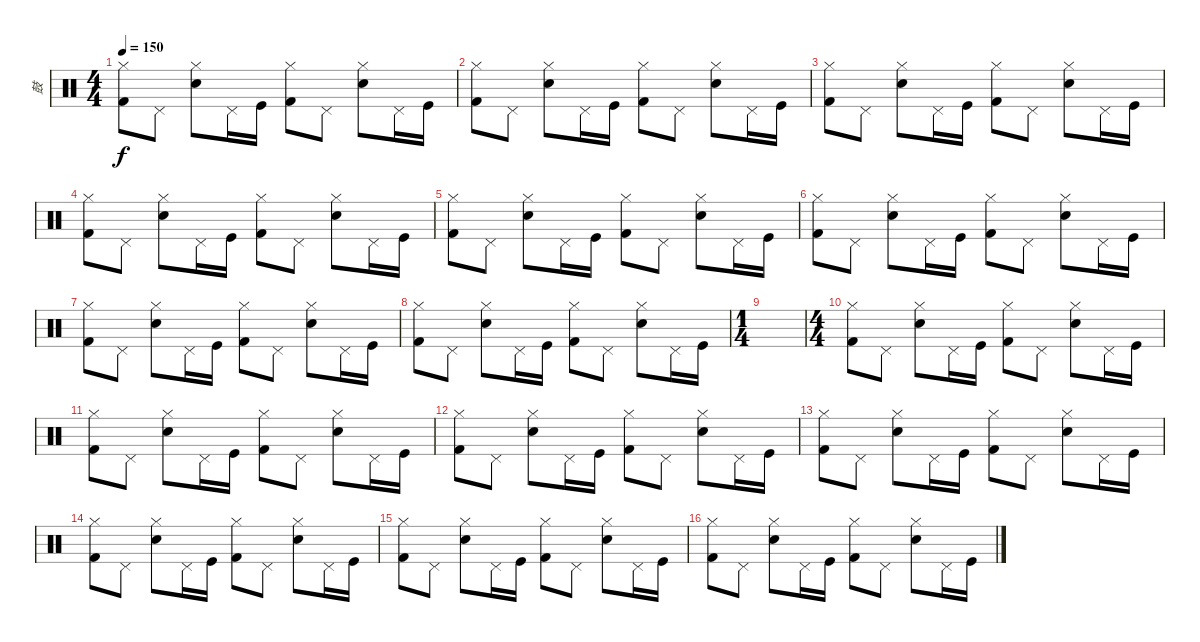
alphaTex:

\track ("鼓" "鼓") {instrument percussion}
\staff {score}
\articulation defaults
\ts (4 4)
\tempo 150
\clef neutral
\ks c
("Hi-Hat (closed)" "Kick (hit) 2").8{dy f} "Pedal Hi-Hat (hit)".8 ("Hi-Hat (closed)" "Electric Snare (hit)").8 "Pedal Hi-Hat (hit)".16 "Kick (hit)".16 ("Hi-Hat (closed)" "Kick (hit) 2").8 "Pedal Hi-Hat (hit)".8 ("Hi-Hat (closed)" "Electric Snare (hit)").8 "Pedal Hi-Hat (hit)".16 "Kick (hit)".16 |
("Hi-Hat (closed)" "Kick (hit) 2").8 "Pedal Hi-Hat (hit)".8 ("Hi-Hat (closed)" "Electric Snare (hit)").8 "Pedal Hi-Hat (hit)".16 "Kick (hit)".16 ("Hi-Hat (closed)" "Kick (hit) 2").8 "Pedal Hi-Hat (hit)".8 ("Hi-Hat (closed)" "Electric Snare (hit)").8 "Pedal Hi-Hat (hit)".16 "Kick (hit)".16 |
("Hi-Hat (closed)" "Kick (hit) 2").8 "Pedal Hi-Hat (hit)".8 ("Hi-Hat (closed)" "Electric Snare (hit)").8 "Pedal Hi-Hat (hit)".16 "Kick (hit)".16 ("Hi-Hat (closed)" "Kick (hit) 2").8 "Pedal Hi-Hat (hit)".8 ("Hi-Hat (closed)" "Electric Snare (hit)").8 "Pedal Hi-Hat (hit)".16 "Kick (hit)".16 |
("Hi-Hat (closed)" "Kick (hit) 2").8 "Pedal Hi-Hat (hit)".8 ("Hi-Hat (closed)" "Electric Snare (hit)").8 "Pedal Hi-Hat (hit)".16 "Kick (hit)".16 ("Hi-Hat (closed)" "Kick (hit) 2").8 "Pedal Hi-Hat (hit)".8 ("Hi-Hat (closed)" "Electric Snare (hit)").8 "Pedal Hi-Hat (hit)".16 "Kick (hit)".16 |
("Hi-Hat (closed)" "Kick (hit) 2").8 "Pedal Hi-Hat (hit)".8 ("Hi-Hat (closed)" "Electric Snare (hit)").8 "Pedal Hi-Hat (hit)".16 "Kick (hit)".16 ("Hi-Hat (closed)" "Kick (hit) 2").8 "Pedal Hi-Hat (hit)".8 ("Hi-Hat (closed)" "Electric Snare (hit)").8 "Pedal Hi-Hat (hit)".16 "Kick (hit)".16 |
("Hi-Hat (closed)" "Kick (hit) 2").8 "Pedal Hi-Hat (hit)".8 ("Hi-Hat (closed)" "Electric Snare (hit)").8 "Pedal Hi-Hat (hit)".16 "Kick (hit)".16 ("Hi-Hat (closed)" "Kick (hit) 2").8 "Pedal Hi-Hat (hit)".8 ("Hi-Hat (closed)" "Electric Snare (hit)").8 "Pedal Hi-Hat (hit)".16 "Kick (hit)".16 |
("Hi-Hat (closed)" "Kick (hit) 2").8 "Pedal Hi-Hat (hit)".8 ("Hi-Hat (closed)" "Electric Snare (hit)").8 "Pedal Hi-Hat (hit)".16 "Kick (hit)".16 ("Hi-Hat (closed)" "Kick (hit) 2").8 "Pedal Hi-Hat (hit)".8 ("Hi-Hat (closed)" "Electric Snare (hit)").8 "Pedal Hi-Hat (hit)".16 "Kick (hit)".16 |
("Hi-Hat (closed)" "Kick (hit) 2").8 "Pedal Hi-Hat (hit)".8 ("Hi-Hat (closed)" "Electric Snare (hit)").8 "Pedal Hi-Hat (hit)".16 "Kick (hit)".16 ("Hi-Hat (closed)" "Kick (hit) 2").8 "Pedal Hi-Hat (hit)".8 ("Hi-Hat (closed)" "Electric Snare (hit)").8 "Pedal Hi-Hat (hit)".16 "Kick (hit)".16 |
\ts (1 4)
|
\ts (4 4)
("Hi-Hat (closed)" "Kick (hit) 2").8 "Pedal Hi-Hat (hit)".8 ("Hi-Hat (closed)" "Electric Snare (hit)").8 "Pedal Hi-Hat (hit)".16 "Kick (hit)".16 ("Hi-Hat (closed)" "Kick (hit) 2").8 "Pedal Hi-Hat (hit)".8 ("Hi-Hat (closed)" "Electric Snare (hit)").8 "Pedal Hi-Hat (hit)".16 "Kick (hit)".16 |
("Hi-Hat (closed)" "Kick (hit) 2").8 "Pedal Hi-Hat (hit)".8 ("Hi-Hat (closed)" "Electric Snare (hit)").8 "Pedal Hi-Hat (hit)".16 "Kick (hit)".16 ("Hi-Hat (closed)" "Kick (hit) 2").8 "Pedal Hi-Hat (hit)".8 ("Hi-Hat (closed)" "Electric Snare (hit)").8 "Pedal Hi-Hat (hit)".16 "Kick (hit)".16 |
("Hi-Hat (closed)" "Kick (hit) 2").8 "Pedal Hi-Hat (hit)".8 ("Hi-Hat (closed)" "Electric Snare (hit)").8 "Pedal Hi-Hat (hit)".16 "Kick (hit)".16 ("Hi-Hat (closed)" "Kick (hit) 2").8 "Pedal Hi-Hat (hit)".8 ("Hi-Hat (closed)" "Electric Snare (hit)").8 "Pedal Hi-Hat (hit)".16 "Kick (hit)".16 |
("Hi-Hat (closed)" "Kick (hit) 2").8 "Pedal Hi-Hat (hit)".8 ("Hi-Hat (closed)" "Electric Snare (hit)").8 "Pedal Hi-Hat (hit)".16 "Kick (hit)".16 ("Hi-Hat (closed)" "Kick (hit) 2").8 "Pedal Hi-Hat (hit)".8 ("Hi-Hat (closed)" "Electric Snare (hit)").8 "Pedal Hi-Hat (hit)".16 "Kick (hit)".16 |
("Hi-Hat (closed)" "Kick (hit) 2").8 "Pedal Hi-Hat (hit)".8 ("Hi-Hat (closed)" "Electric Snare (hit)").8 "Pedal Hi-Hat (hit)".16 "Kick (hit)".16 ("Hi-Hat (closed)" "Kick (hit) 2").8 "Pedal Hi-Hat (hit)".8 ("Hi-Hat (closed)" "Electric Snare (hit)").8 "Pedal Hi-Hat (hit)".16 "Kick (hit)".16 |
("Hi-Hat (closed)" "Kick (hit) 2").8 "Pedal Hi-Hat (hit)".8 ("Hi-Hat (closed)" "Electric Snare (hit)").8 "Pedal Hi-Hat (hit)".16 "Kick (hit)".16 ("Hi-Hat (closed)" "Kick (hit) 2").8 "Pedal Hi-Hat (hit)".8 ("Hi-Hat (closed)" "Electric Snare (hit)").8 "Pedal Hi-Hat (hit)".16 "Kick (hit)".16 |
("Hi-Hat (closed)" "Kick (hit) 2").8 "Pedal Hi-Hat (hit)".8 ("Hi-Hat (closed)" "Electric Snare (hit)").8 "Pedal Hi-Hat (hit)".16 "Kick (hit)".16 ("Hi-Hat (closed)" "Kick (hit) 2").8 "Pedal Hi-Hat (hit)".8 ("Hi-Hat (closed)" "Electric Snare (hit)").8 "Pedal Hi-Hat (hit)".16 "Kick (hit)".16
